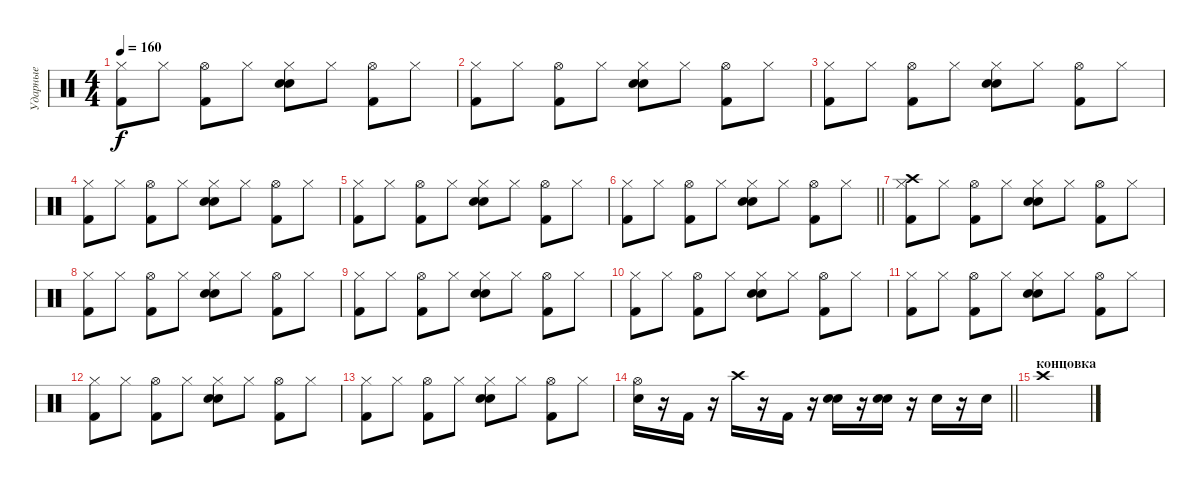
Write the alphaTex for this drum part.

\track ("Ударные" "Ударные") {instrument percussion}
\staff {score}
\articulation defaults
\ts (4 4)
\tempo 160
\clef neutral
\ks c
("Hi-Hat (closed)" "Kick (hit) 2").8{dy f} "Hi-Hat (closed)".8 ("Hi-Hat (open)" "Kick (hit) 2").8 "Hi-Hat (closed)".8 ("Hi-Hat (closed)" "Electric Snare (hit)" "Snare (hit) 2").8 "Hi-Hat (closed)".8 ("Hi-Hat (open)" "Kick (hit) 2").8 "Hi-Hat (closed)".8 |
("Hi-Hat (closed)" "Kick (hit) 2").8 "Hi-Hat (closed)".8 ("Hi-Hat (open)" "Kick (hit) 2").8 "Hi-Hat (closed)".8 ("Hi-Hat (closed)" "Electric Snare (hit)" "Snare (hit) 2").8 "Hi-Hat (closed)".8 ("Hi-Hat (open)" "Kick (hit) 2").8 "Hi-Hat (closed)".8 |
("Hi-Hat (closed)" "Kick (hit) 2").8 "Hi-Hat (closed)".8 ("Hi-Hat (open)" "Kick (hit) 2").8 "Hi-Hat (closed)".8 ("Hi-Hat (closed)" "Snare (hit) 2" "Electric Snare (hit)").8 "Hi-Hat (closed)".8 ("Hi-Hat (open)" "Kick (hit) 2").8 "Hi-Hat (closed)".8 |
("Hi-Hat (closed)" "Kick (hit) 2").8 "Hi-Hat (closed)".8 ("Hi-Hat (open)" "Kick (hit) 2").8 "Hi-Hat (closed)".8 ("Hi-Hat (closed)" "Snare (hit) 2" "Electric Snare (hit)").8 "Hi-Hat (closed)".8 ("Hi-Hat (open)" "Kick (hit) 2").8 "Hi-Hat (closed)".8 |
("Hi-Hat (closed)" "Kick (hit) 2").8 "Hi-Hat (closed)".8 ("Hi-Hat (open)" "Kick (hit) 2").8 "Hi-Hat (closed)".8 ("Hi-Hat (closed)" "Snare (hit) 2" "Electric Snare (hit)").8 "Hi-Hat (closed)".8 ("Hi-Hat (open)" "Kick (hit) 2").8 "Hi-Hat (closed)".8 |
\barLineRight lightlight
("Hi-Hat (closed)" "Kick (hit) 2").8 "Hi-Hat (closed)".8 ("Hi-Hat (open)" "Kick (hit) 2").8 "Hi-Hat (closed)".8 ("Hi-Hat (closed)" "Snare (hit) 2" "Electric Snare (hit)").8 "Hi-Hat (closed)".8 ("Hi-Hat (open)" "Kick (hit) 2").8 "Hi-Hat (closed)".8 |
("Hi-Hat (closed)" "Crash high (hit)" "Kick (hit) 2").8 "Hi-Hat (closed)".8 ("Hi-Hat (open)" "Kick (hit) 2").8 "Hi-Hat (closed)".8 ("Hi-Hat (closed)" "Snare (hit) 2" "Electric Snare (hit)").8 "Hi-Hat (closed)".8 ("Hi-Hat (open)" "Kick (hit) 2").8 "Hi-Hat (closed)".8 |
("Hi-Hat (closed)" "Kick (hit) 2").8 "Hi-Hat (closed)".8 ("Hi-Hat (open)" "Kick (hit) 2").8 "Hi-Hat (closed)".8 ("Hi-Hat (closed)" "Snare (hit) 2" "Electric Snare (hit)").8 "Hi-Hat (closed)".8 ("Hi-Hat (open)" "Kick (hit) 2").8 "Hi-Hat (closed)".8 |
("Hi-Hat (closed)" "Kick (hit) 2").8 "Hi-Hat (closed)".8 ("Hi-Hat (open)" "Kick (hit) 2").8 "Hi-Hat (closed)".8 ("Hi-Hat (closed)" "Snare (hit) 2" "Electric Snare (hit)").8 "Hi-Hat (closed)".8 ("Hi-Hat (open)" "Kick (hit) 2").8 "Hi-Hat (closed)".8 |
("Hi-Hat (closed)" "Kick (hit) 2").8 "Hi-Hat (closed)".8 ("Hi-Hat (open)" "Kick (hit) 2").8 "Hi-Hat (closed)".8 ("Hi-Hat (closed)" "Snare (hit) 2" "Electric Snare (hit)").8 "Hi-Hat (closed)".8 ("Hi-Hat (open)" "Kick (hit) 2").8 "Hi-Hat (closed)".8 |
("Hi-Hat (closed)" "Kick (hit) 2").8 "Hi-Hat (closed)".8 ("Hi-Hat (open)" "Kick (hit) 2").8 "Hi-Hat (closed)".8 ("Hi-Hat (closed)" "Snare (hit) 2" "Electric Snare (hit)").8 "Hi-Hat (closed)".8 ("Hi-Hat (open)" "Kick (hit) 2").8 "Hi-Hat (closed)".8 |
("Hi-Hat (closed)" "Kick (hit) 2").8 "Hi-Hat (closed)".8 ("Hi-Hat (open)" "Kick (hit) 2").8 "Hi-Hat (closed)".8 ("Hi-Hat (closed)" "Snare (hit) 2" "Electric Snare (hit)").8 "Hi-Hat (closed)".8 ("Hi-Hat (open)" "Kick (hit) 2").8 "Hi-Hat (closed)".8 |
("Hi-Hat (closed)" "Kick (hit) 2").8 "Hi-Hat (closed)".8 ("Hi-Hat (open)" "Kick (hit) 2").8 "Hi-Hat (closed)".8 ("Hi-Hat (closed)" "Snare (hit) 2" "Electric Snare (hit)").8 "Hi-Hat (closed)".8 ("Hi-Hat (open)" "Kick (hit) 2").8 "Hi-Hat (closed)".8 |
\barLineRight lightlight
("Snare (hit) 2" "Hi-Hat (open)").16 r.16 "Kick (hit) 2".16 r.16 "Crash high (hit)".16 r.16 "Kick (hit) 2".16 r.16 ("Snare (hit) 2" "Electric Snare (hit)").16 r.16 ("Snare (hit) 2" "Electric Snare (hit)").16 r.16 "Electric Snare (hit)".16 r.16 "Electric Snare (hit)".16 |
\section ("" "концовка")
"Crash high (hit)".1
